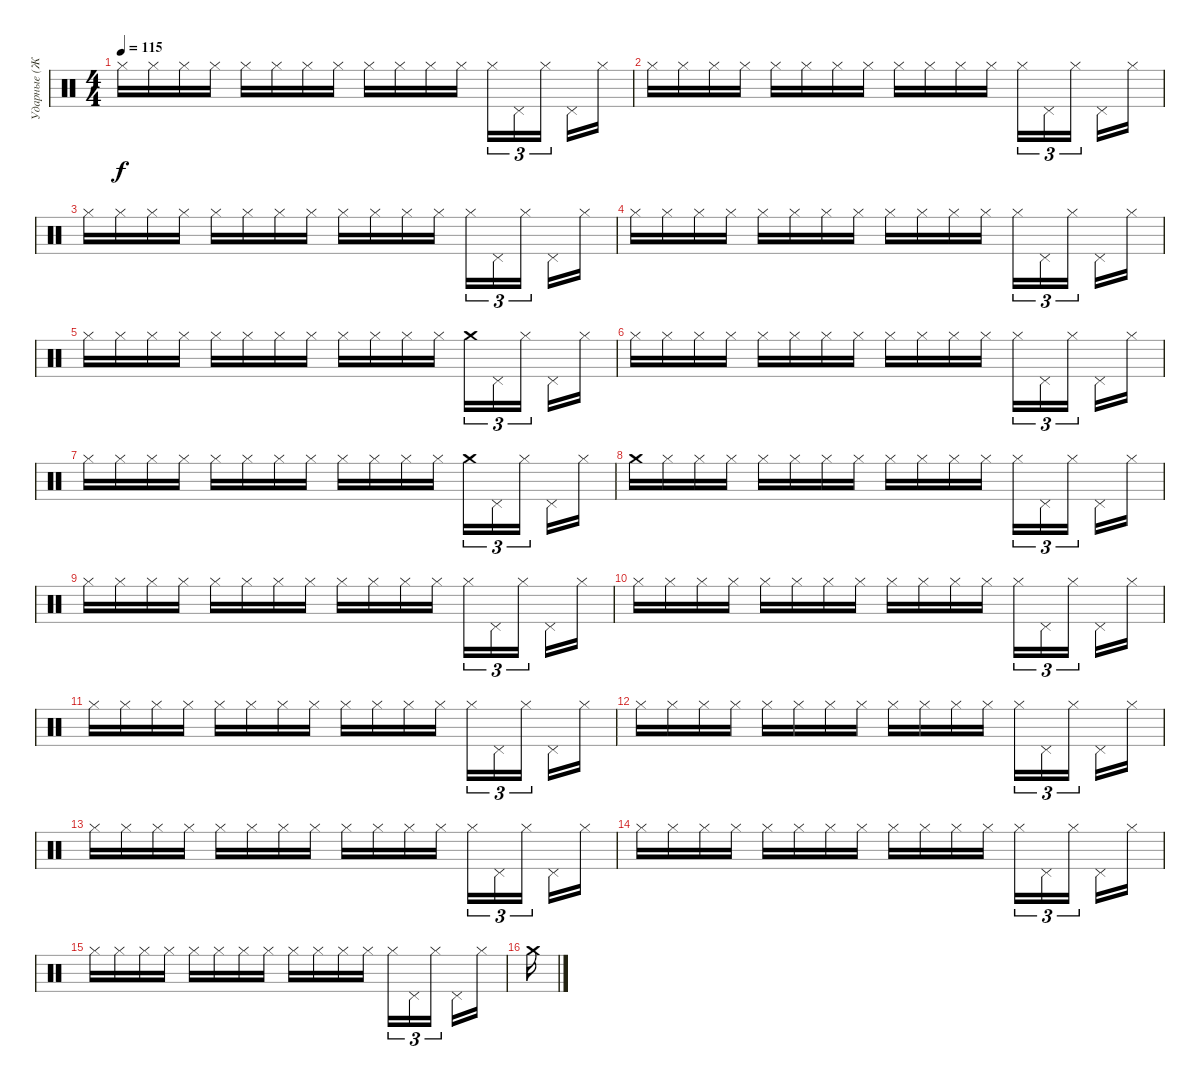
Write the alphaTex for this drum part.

\track ("Ударные (Железо)" "Ударные (Ж") {instrument percussion}
\staff {score}
\articulation defaults
\ts (4 4)
\tempo 115
\clef neutral
\ks c "Hi-Hat (closed)".16{dy f} "Hi-Hat (closed)".16 "Hi-Hat (closed)".16 "Hi-Hat (closed)".16 "Hi-Hat (closed)".16 "Hi-Hat (closed)".16 "Hi-Hat (closed)".16 "Hi-Hat (closed)".16 "Hi-Hat (closed)".16 "Hi-Hat (closed)".16 "Hi-Hat (closed)".16 "Hi-Hat (closed)".16 "Hi-Hat (closed)".16{tu (3 2)} "Pedal Hi-Hat (hit)".16{tu (3 2)} "Hi-Hat (closed)".16{tu (3 2) beam splitsecondary} "Pedal Hi-Hat (hit)".16 "Hi-Hat (closed)".16
|
"Hi-Hat (closed)".16 "Hi-Hat (closed)".16 "Hi-Hat (closed)".16 "Hi-Hat (closed)".16 "Hi-Hat (closed)".16 "Hi-Hat (closed)".16 "Hi-Hat (closed)".16 "Hi-Hat (closed)".16 "Hi-Hat (closed)".16 "Hi-Hat (closed)".16 "Hi-Hat (closed)".16 "Hi-Hat (closed)".16 "Hi-Hat (closed)".16{tu (3 2)} "Pedal Hi-Hat (hit)".16{tu (3 2)} "Hi-Hat (closed)".16{tu (3 2) beam splitsecondary} "Pedal Hi-Hat (hit)".16 "Hi-Hat (closed)".16 |
"Hi-Hat (closed)".16 "Hi-Hat (closed)".16 "Hi-Hat (closed)".16 "Hi-Hat (closed)".16 "Hi-Hat (closed)".16 "Hi-Hat (closed)".16 "Hi-Hat (closed)".16 "Hi-Hat (closed)".16 "Hi-Hat (closed)".16 "Hi-Hat (closed)".16 "Hi-Hat (closed)".16 "Hi-Hat (closed)".16 "Hi-Hat (closed)".16{tu (3 2)} "Pedal Hi-Hat (hit)".16{tu (3 2)} "Hi-Hat (closed)".16{tu (3 2) beam splitsecondary} "Pedal Hi-Hat (hit)".16 "Hi-Hat (closed)".16 |
"Hi-Hat (closed)".16 "Hi-Hat (closed)".16 "Hi-Hat (closed)".16 "Hi-Hat (closed)".16 "Hi-Hat (closed)".16 "Hi-Hat (closed)".16 "Hi-Hat (closed)".16 "Hi-Hat (closed)".16 "Hi-Hat (closed)".16 "Hi-Hat (closed)".16 "Hi-Hat (closed)".16 "Hi-Hat (closed)".16 "Hi-Hat (closed)".16{tu (3 2)} "Pedal Hi-Hat (hit)".16{tu (3 2)} "Hi-Hat (closed)".16{tu (3 2) beam splitsecondary} "Pedal Hi-Hat (hit)".16 "Hi-Hat (closed)".16 |
"Hi-Hat (closed)".16 "Hi-Hat (closed)".16 "Hi-Hat (closed)".16 "Hi-Hat (closed)".16 "Hi-Hat (closed)".16 "Hi-Hat (closed)".16 "Hi-Hat (closed)".16 "Hi-Hat (closed)".16 "Hi-Hat (closed)".16 "Hi-Hat (closed)".16 "Hi-Hat (closed)".16 "Hi-Hat (closed)".16 "Crash medium (hit)".16{tu (3 2)} "Pedal Hi-Hat (hit)".16{tu (3 2)} "Hi-Hat (closed)".16{tu (3 2) beam splitsecondary} "Pedal Hi-Hat (hit)".16 "Hi-Hat (closed)".16 |
"Hi-Hat (closed)".16 "Hi-Hat (closed)".16 "Hi-Hat (closed)".16 "Hi-Hat (closed)".16 "Hi-Hat (closed)".16 "Hi-Hat (closed)".16 "Hi-Hat (closed)".16 "Hi-Hat (closed)".16 "Hi-Hat (closed)".16 "Hi-Hat (closed)".16 "Hi-Hat (closed)".16 "Hi-Hat (closed)".16 "Hi-Hat (closed)".16{tu (3 2)} "Pedal Hi-Hat (hit)".16{tu (3 2)} "Hi-Hat (closed)".16{tu (3 2) beam splitsecondary} "Pedal Hi-Hat (hit)".16 "Hi-Hat (closed)".16 |
"Hi-Hat (closed)".16 "Hi-Hat (closed)".16 "Hi-Hat (closed)".16 "Hi-Hat (closed)".16 "Hi-Hat (closed)".16 "Hi-Hat (closed)".16 "Hi-Hat (closed)".16 "Hi-Hat (closed)".16 "Hi-Hat (closed)".16 "Hi-Hat (closed)".16 "Hi-Hat (closed)".16 "Hi-Hat (closed)".16 "Crash medium (hit)".16{tu (3 2)} "Pedal Hi-Hat (hit)".16{tu (3 2)} "Hi-Hat (closed)".16{tu (3 2) beam splitsecondary} "Pedal Hi-Hat (hit)".16 "Hi-Hat (closed)".16 |
"Crash medium (hit)".16 "Hi-Hat (closed)".16 "Hi-Hat (closed)".16 "Hi-Hat (closed)".16 "Hi-Hat (closed)".16 "Hi-Hat (closed)".16 "Hi-Hat (closed)".16 "Hi-Hat (closed)".16 "Hi-Hat (closed)".16 "Hi-Hat (closed)".16 "Hi-Hat (closed)".16 "Hi-Hat (closed)".16 "Hi-Hat (closed)".16{tu (3 2)} "Pedal Hi-Hat (hit)".16{tu (3 2)} "Hi-Hat (closed)".16{tu (3 2) beam splitsecondary} "Pedal Hi-Hat (hit)".16 "Hi-Hat (closed)".16 |
"Hi-Hat (closed)".16 "Hi-Hat (closed)".16 "Hi-Hat (closed)".16 "Hi-Hat (closed)".16 "Hi-Hat (closed)".16 "Hi-Hat (closed)".16 "Hi-Hat (closed)".16 "Hi-Hat (closed)".16 "Hi-Hat (closed)".16 "Hi-Hat (closed)".16 "Hi-Hat (closed)".16 "Hi-Hat (closed)".16 "Hi-Hat (closed)".16{tu (3 2)} "Pedal Hi-Hat (hit)".16{tu (3 2)} "Hi-Hat (closed)".16{tu (3 2) beam splitsecondary} "Pedal Hi-Hat (hit)".16 "Hi-Hat (closed)".16 |
"Hi-Hat (closed)".16 "Hi-Hat (closed)".16 "Hi-Hat (closed)".16 "Hi-Hat (closed)".16 "Hi-Hat (closed)".16 "Hi-Hat (closed)".16 "Hi-Hat (closed)".16 "Hi-Hat (closed)".16 "Hi-Hat (closed)".16 "Hi-Hat (closed)".16 "Hi-Hat (closed)".16 "Hi-Hat (closed)".16 "Hi-Hat (closed)".16{tu (3 2)} "Pedal Hi-Hat (hit)".16{tu (3 2)} "Hi-Hat (closed)".16{tu (3 2) beam splitsecondary} "Pedal Hi-Hat (hit)".16 "Hi-Hat (closed)".16 |
"Hi-Hat (closed)".16 "Hi-Hat (closed)".16 "Hi-Hat (closed)".16 "Hi-Hat (closed)".16 "Hi-Hat (closed)".16 "Hi-Hat (closed)".16 "Hi-Hat (closed)".16 "Hi-Hat (closed)".16 "Hi-Hat (closed)".16 "Hi-Hat (closed)".16 "Hi-Hat (closed)".16 "Hi-Hat (closed)".16 "Hi-Hat (closed)".16{tu (3 2)} "Pedal Hi-Hat (hit)".16{tu (3 2)} "Hi-Hat (closed)".16{tu (3 2) beam splitsecondary} "Pedal Hi-Hat (hit)".16 "Hi-Hat (closed)".16 |
"Hi-Hat (closed)".16 "Hi-Hat (closed)".16 "Hi-Hat (closed)".16 "Hi-Hat (closed)".16 "Hi-Hat (closed)".16 "Hi-Hat (closed)".16 "Hi-Hat (closed)".16 "Hi-Hat (closed)".16 "Hi-Hat (closed)".16 "Hi-Hat (closed)".16 "Hi-Hat (closed)".16 "Hi-Hat (closed)".16 "Hi-Hat (closed)".16{tu (3 2)} "Pedal Hi-Hat (hit)".16{tu (3 2)} "Hi-Hat (closed)".16{tu (3 2) beam splitsecondary} "Pedal Hi-Hat (hit)".16 "Hi-Hat (closed)".16 |
"Hi-Hat (closed)".16 "Hi-Hat (closed)".16 "Hi-Hat (closed)".16 "Hi-Hat (closed)".16 "Hi-Hat (closed)".16 "Hi-Hat (closed)".16 "Hi-Hat (closed)".16 "Hi-Hat (closed)".16 "Hi-Hat (closed)".16 "Hi-Hat (closed)".16 "Hi-Hat (closed)".16 "Hi-Hat (closed)".16 "Hi-Hat (closed)".16{tu (3 2)} "Pedal Hi-Hat (hit)".16{tu (3 2)} "Hi-Hat (closed)".16{tu (3 2) beam splitsecondary} "Pedal Hi-Hat (hit)".16 "Hi-Hat (closed)".16 |
"Hi-Hat (closed)".16 "Hi-Hat (closed)".16 "Hi-Hat (closed)".16 "Hi-Hat (closed)".16 "Hi-Hat (closed)".16 "Hi-Hat (closed)".16 "Hi-Hat (closed)".16 "Hi-Hat (closed)".16 "Hi-Hat (closed)".16 "Hi-Hat (closed)".16 "Hi-Hat (closed)".16 "Hi-Hat (closed)".16 "Hi-Hat (closed)".16{tu (3 2)} "Pedal Hi-Hat (hit)".16{tu (3 2)} "Hi-Hat (closed)".16{tu (3 2) beam splitsecondary} "Pedal Hi-Hat (hit)".16 "Hi-Hat (closed)".16 |
"Hi-Hat (closed)".16 "Hi-Hat (closed)".16 "Hi-Hat (closed)".16 "Hi-Hat (closed)".16 "Hi-Hat (closed)".16 "Hi-Hat (closed)".16 "Hi-Hat (closed)".16 "Hi-Hat (closed)".16 "Hi-Hat (closed)".16 "Hi-Hat (closed)".16 "Hi-Hat (closed)".16 "Hi-Hat (closed)".16 "Hi-Hat (closed)".16{tu (3 2)} "Pedal Hi-Hat (hit)".16{tu (3 2)} "Hi-Hat (closed)".16{tu (3 2) beam splitsecondary} "Pedal Hi-Hat (hit)".16 "Hi-Hat (closed)".16 |
"Crash medium (hit)".16
